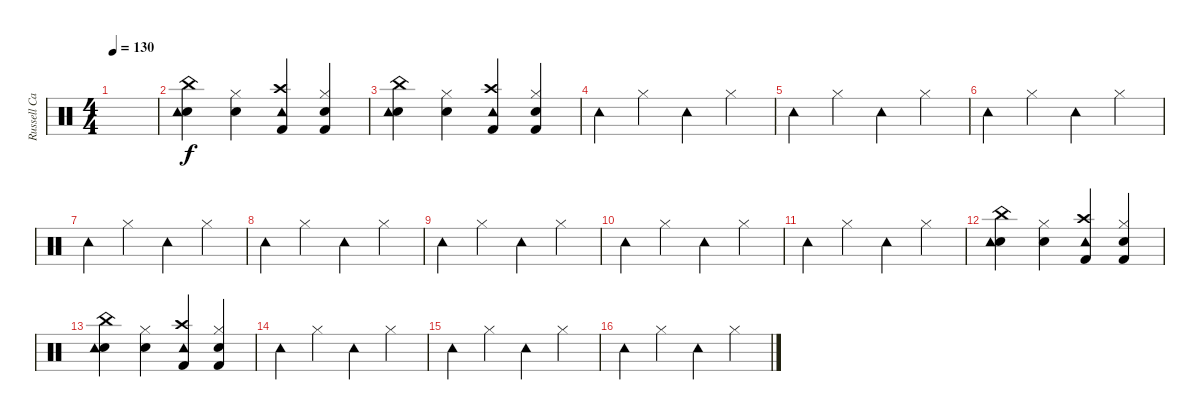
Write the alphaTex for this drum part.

\track ("Russell Cannon" "Russell Ca") {instrument percussion}
\staff {score}
\articulation defaults
\ts (4 4)
\tempo 130
\clef neutral
\ks c
|
("Electric Snare (hit)" "China (hit)" "Tambourine (hit)").4 ("Electric Snare (hit)" "Hi-Hat (closed)").4 ("Crash high (hit)" "Kick (hit) 2" "Tambourine (hit)").4 ("Electric Snare (hit)" "Kick (hit) 2" "Hi-Hat (closed)").4 |
("Electric Snare (hit)" "China (hit)" "Tambourine (hit)").4 ("Electric Snare (hit)" "Hi-Hat (closed)").4 ("Crash high (hit)" "Kick (hit) 2" "Tambourine (hit)").4 ("Electric Snare (hit)" "Kick (hit) 2" "Hi-Hat (closed)").4 |
"Tambourine (hit)".4 "Hi-Hat (closed)".4 "Tambourine (hit)".4 "Hi-Hat (closed)".4 |
"Tambourine (hit)".4 "Hi-Hat (closed)".4 "Tambourine (hit)".4 "Hi-Hat (closed)".4 |
"Tambourine (hit)".4 "Hi-Hat (closed)".4 "Tambourine (hit)".4 "Hi-Hat (closed)".4 |
"Tambourine (hit)".4 "Hi-Hat (closed)".4 "Tambourine (hit)".4 "Hi-Hat (closed)".4 |
"Tambourine (hit)".4 "Hi-Hat (closed)".4 "Tambourine (hit)".4 "Hi-Hat (closed)".4 |
"Tambourine (hit)".4 "Hi-Hat (closed)".4 "Tambourine (hit)".4 "Hi-Hat (closed)".4 |
"Tambourine (hit)".4 "Hi-Hat (closed)".4 "Tambourine (hit)".4 "Hi-Hat (closed)".4 |
"Tambourine (hit)".4 "Hi-Hat (closed)".4 "Tambourine (hit)".4 "Hi-Hat (closed)".4 |
("Electric Snare (hit)" "China (hit)" "Tambourine (hit)").4 ("Electric Snare (hit)" "Hi-Hat (closed)").4 ("Crash high (hit)" "Kick (hit) 2" "Tambourine (hit)").4 ("Electric Snare (hit)" "Kick (hit) 2" "Hi-Hat (closed)").4 |
("Electric Snare (hit)" "China (hit)" "Tambourine (hit)").4 ("Electric Snare (hit)" "Hi-Hat (closed)").4 ("Crash high (hit)" "Kick (hit) 2" "Tambourine (hit)").4 ("Electric Snare (hit)" "Kick (hit) 2" "Hi-Hat (closed)").4 |
"Tambourine (hit)".4 "Hi-Hat (closed)".4 "Tambourine (hit)".4 "Hi-Hat (closed)".4 |
"Tambourine (hit)".4 "Hi-Hat (closed)".4 "Tambourine (hit)".4 "Hi-Hat (closed)".4 |
"Tambourine (hit)".4 "Hi-Hat (closed)".4 "Tambourine (hit)".4 "Hi-Hat (closed)".4
